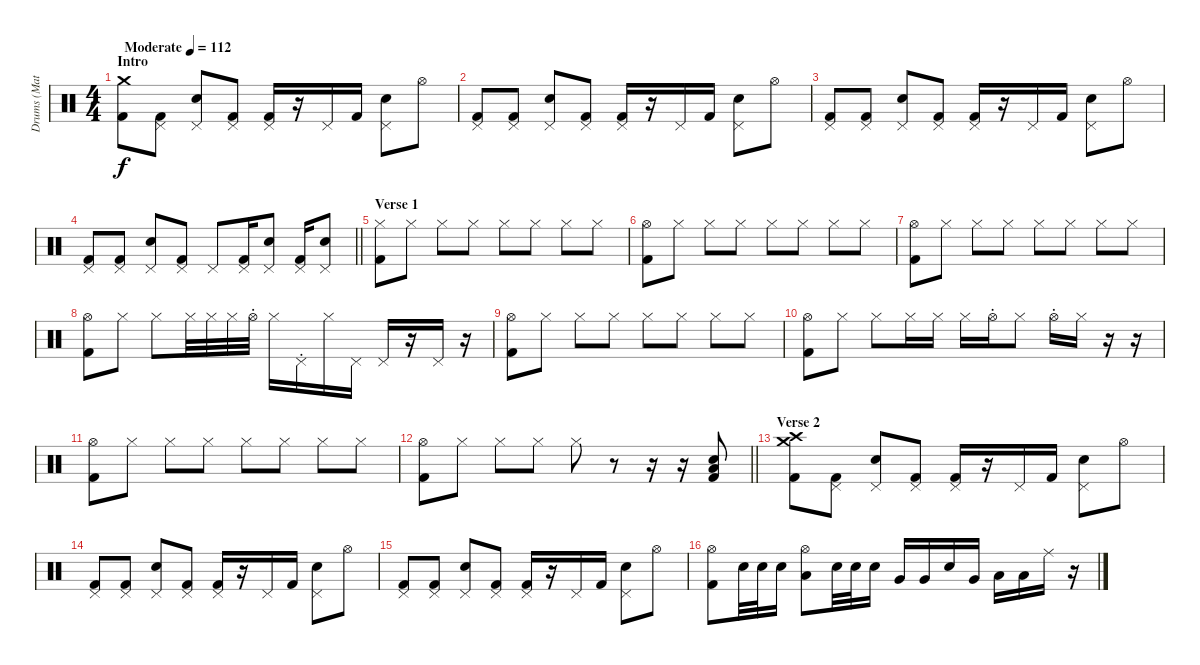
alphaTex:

\track ("Drums (Matt)" "Drums (Mat") {instrument percussion}
\staff {score}
\articulation defaults
\ts (4 4)
\section ("" "Intro")
\tempo (112 "Moderate")
\clef neutral
\ks c
("Crash medium (hit)" "Kick (hit) 2").8{dy f} ("Pedal Hi-Hat (hit)" "Kick (hit) 2").8 ("Pedal Hi-Hat (hit)" "Electric Snare (hit)").8 ("Pedal Hi-Hat (hit)" "Kick (hit) 2").8 ("Pedal Hi-Hat (hit)" "Kick (hit) 2").16 r.16 "Pedal Hi-Hat (hit)".16 "Kick (hit) 2".16 ("Pedal Hi-Hat (hit)" "Electric Snare (hit)").8 "Hi-Hat (open)".8 |
("Pedal Hi-Hat (hit)" "Kick (hit) 2").8 ("Pedal Hi-Hat (hit)" "Kick (hit) 2").8 ("Pedal Hi-Hat (hit)" "Electric Snare (hit)").8 ("Pedal Hi-Hat (hit)" "Kick (hit) 2").8 ("Pedal Hi-Hat (hit)" "Kick (hit) 2").16 r.16 "Pedal Hi-Hat (hit)".16 "Kick (hit) 2".16 ("Pedal Hi-Hat (hit)" "Electric Snare (hit)").8 "Hi-Hat (open)".8 |
("Pedal Hi-Hat (hit)" "Kick (hit) 2").8 ("Pedal Hi-Hat (hit)" "Kick (hit) 2").8 ("Pedal Hi-Hat (hit)" "Electric Snare (hit)").8 ("Pedal Hi-Hat (hit)" "Kick (hit) 2").8 ("Pedal Hi-Hat (hit)" "Kick (hit) 2").16 r.16 "Pedal Hi-Hat (hit)".16 "Kick (hit) 2".16 ("Pedal Hi-Hat (hit)" "Electric Snare (hit)").8 "Hi-Hat (open)".8 |
\barLineRight lightlight
("Pedal Hi-Hat (hit)" "Kick (hit) 2").8 ("Pedal Hi-Hat (hit)" "Kick (hit) 2").8 ("Pedal Hi-Hat (hit)" "Electric Snare (hit)").8 ("Pedal Hi-Hat (hit)" "Kick (hit) 2").8 "Pedal Hi-Hat (hit)".8 ("Pedal Hi-Hat (hit)" "Kick (hit) 2").16 ("Pedal Hi-Hat (hit)" "Electric Snare (hit)").8 ("Pedal Hi-Hat (hit)" "Kick (hit) 2").16 ("Pedal Hi-Hat (hit)" "Electric Snare (hit)").8 |
\section ("" "Verse 1")
("Hi-Hat (closed)" "Kick (hit) 2").8 "Hi-Hat (closed)".8 "Hi-Hat (closed)".8 "Hi-Hat (closed)".8 "Hi-Hat (closed)".8 "Hi-Hat (closed)".8 "Hi-Hat (closed)".8 "Hi-Hat (closed)".8 |
("Hi-Hat (open)" "Kick (hit) 2").8 "Hi-Hat (closed)".8 "Hi-Hat (closed)".8 "Hi-Hat (closed)".8 "Hi-Hat (closed)".8 "Hi-Hat (closed)".8 "Hi-Hat (closed)".8 "Hi-Hat (closed)".8 |
("Hi-Hat (open)" "Kick (hit) 2").8 "Hi-Hat (closed)".8 "Hi-Hat (closed)".8 "Hi-Hat (closed)".8 "Hi-Hat (closed)".8 "Hi-Hat (closed)".8 "Hi-Hat (closed)".8 "Hi-Hat (closed)".8 |
("Hi-Hat (open)" "Kick (hit) 2").8 "Hi-Hat (closed)".8 "Hi-Hat (closed)".8 "Hi-Hat (closed)".32 "Hi-Hat (closed)".32 "Hi-Hat (closed)".32 "Hi-Hat (open)"{st}.32 "Hi-Hat (closed)".16 "Pedal Hi-Hat (hit)"{st}.16 "Hi-Hat (closed)".16 "Pedal Hi-Hat (hit)".16 "Pedal Hi-Hat (hit)".16 r.16 "Pedal Hi-Hat (hit)".16 r.16 |
("Hi-Hat (open)" "Kick (hit) 2").8 "Hi-Hat (closed)".8 "Hi-Hat (closed)".8 "Hi-Hat (closed)".8 "Hi-Hat (closed)".8 "Hi-Hat (closed)".8 "Hi-Hat (closed)".8 "Hi-Hat (closed)".8 |
("Hi-Hat (open)" "Kick (hit) 2").8 "Hi-Hat (closed)".8 "Hi-Hat (closed)".8 "Hi-Hat (closed)".16 "Hi-Hat (closed)".16 "Hi-Hat (closed)".16 "Hi-Hat (open)"{st}.16 "Hi-Hat (closed)".8 "Hi-Hat (open)"{st}.16 "Hi-Hat (closed)".16 r.16 r.16 |
("Hi-Hat (open)" "Kick (hit) 2").8 "Hi-Hat (closed)".8 "Hi-Hat (closed)".8 "Hi-Hat (closed)".8 "Hi-Hat (closed)".8 "Hi-Hat (closed)".8 "Hi-Hat (closed)".8 "Hi-Hat (closed)".8 |
\barLineRight lightlight
("Hi-Hat (open)" "Kick (hit) 2").8 "Hi-Hat (closed)".8 "Hi-Hat (closed)".8 "Hi-Hat (closed)".8 "Hi-Hat (closed)".8 r.8 r.16 r.16 ("Electric Snare (hit)" "Low Floor Tom (hit)" "Kick (hit) 2").8 |
\section ("" "Verse 2")
("Crash medium (hit)" "Crash high (hit)" "Kick (hit) 2").8 ("Pedal Hi-Hat (hit)" "Kick (hit) 2").8 ("Pedal Hi-Hat (hit)" "Electric Snare (hit)").8 ("Pedal Hi-Hat (hit)" "Kick (hit) 2").8 ("Pedal Hi-Hat (hit)" "Kick (hit) 2").16 r.16 "Pedal Hi-Hat (hit)".16 "Kick (hit) 2".16 ("Pedal Hi-Hat (hit)" "Electric Snare (hit)").8 "Hi-Hat (open)".8 |
("Pedal Hi-Hat (hit)" "Kick (hit) 2").8 ("Pedal Hi-Hat (hit)" "Kick (hit) 2").8 ("Pedal Hi-Hat (hit)" "Electric Snare (hit)").8 ("Pedal Hi-Hat (hit)" "Kick (hit) 2").8 ("Pedal Hi-Hat (hit)" "Kick (hit) 2").16 r.16 "Pedal Hi-Hat (hit)".16 "Kick (hit) 2".16 ("Pedal Hi-Hat (hit)" "Electric Snare (hit)").8 "Hi-Hat (open)".8 |
("Pedal Hi-Hat (hit)" "Kick (hit) 2").8 ("Pedal Hi-Hat (hit)" "Kick (hit) 2").8 ("Pedal Hi-Hat (hit)" "Electric Snare (hit)").8 ("Pedal Hi-Hat (hit)" "Kick (hit) 2").8 ("Pedal Hi-Hat (hit)" "Kick (hit) 2").16 r.16 "Pedal Hi-Hat (hit)".16 "Kick (hit) 2".16 ("Pedal Hi-Hat (hit)" "Electric Snare (hit)").8 "Hi-Hat (open)".8 |
("Hi-Hat (open)" "Kick (hit) 2").8 "Electric Snare (hit)".32 "Electric Snare (hit)".32 "Electric Snare (hit)".16 ("Hi-Hat (open)" "Low Floor Tom (hit)").8 "Electric Snare (hit)".32 "Electric Snare (hit)".32 "Electric Snare (hit)".16 "Very Low Tom (hit)".16 "Very Low Tom (hit)".16 "Electric Snare (hit)".16 "Very Low Tom (hit)".16 "Low Floor Tom (hit)".16 "Low Floor Tom (hit)".16 "Ride (middle)".16 r.16
